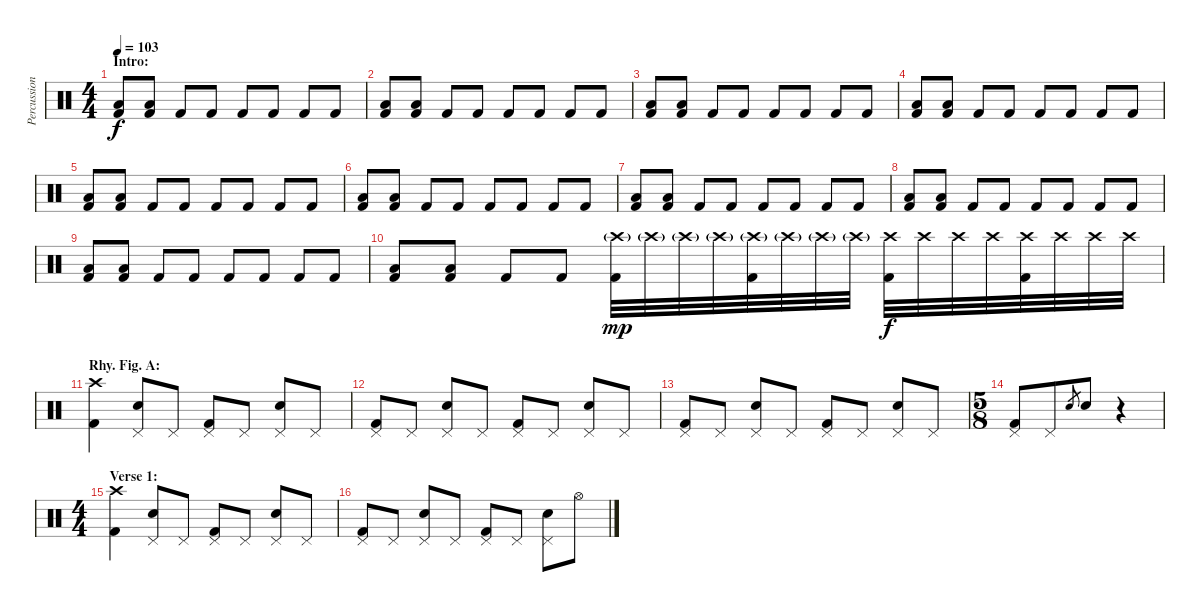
\track ("Percussion" "Percussion") {instrument percussion}
\staff {score}
\articulation defaults
\ts (4 4)
\section ("" "Intro:")
\tempo 103
\clef neutral
\ks c
("Low Tom (hit)" "Kick (hit) 2").8{dy f} ("Low Tom (hit)" "Kick (hit) 2").8 "Kick (hit) 2".8 "Kick (hit) 2".8 "Kick (hit) 2".8 "Kick (hit) 2".8 "Kick (hit) 2".8 "Kick (hit) 2".8 |
("Low Tom (hit)" "Kick (hit) 2").8 ("Low Tom (hit)" "Kick (hit) 2").8 "Kick (hit) 2".8 "Kick (hit) 2".8 "Kick (hit) 2".8 "Kick (hit) 2".8 "Kick (hit) 2".8 "Kick (hit) 2".8 |
("Low Tom (hit)" "Kick (hit) 2").8 ("Low Tom (hit)" "Kick (hit) 2").8 "Kick (hit) 2".8 "Kick (hit) 2".8 "Kick (hit) 2".8 "Kick (hit) 2".8 "Kick (hit) 2".8 "Kick (hit) 2".8 |
("Low Tom (hit)" "Kick (hit) 2").8 ("Low Tom (hit)" "Kick (hit) 2").8 "Kick (hit) 2".8 "Kick (hit) 2".8 "Kick (hit) 2".8 "Kick (hit) 2".8 "Kick (hit) 2".8 "Kick (hit) 2".8 |
("Low Tom (hit)" "Kick (hit) 2").8 ("Low Tom (hit)" "Kick (hit) 2").8 "Kick (hit) 2".8 "Kick (hit) 2".8 "Kick (hit) 2".8 "Kick (hit) 2".8 "Kick (hit) 2".8 "Kick (hit) 2".8 |
("Low Tom (hit)" "Kick (hit) 2").8 ("Low Tom (hit)" "Kick (hit) 2").8 "Kick (hit) 2".8 "Kick (hit) 2".8 "Kick (hit) 2".8 "Kick (hit) 2".8 "Kick (hit) 2".8 "Kick (hit) 2".8 |
("Low Tom (hit)" "Kick (hit) 2").8 ("Low Tom (hit)" "Kick (hit) 2").8 "Kick (hit) 2".8 "Kick (hit) 2".8 "Kick (hit) 2".8 "Kick (hit) 2".8 "Kick (hit) 2".8 "Kick (hit) 2".8 |
("Low Tom (hit)" "Kick (hit) 2").8 ("Low Tom (hit)" "Kick (hit) 2").8 "Kick (hit) 2".8 "Kick (hit) 2".8 "Kick (hit) 2".8 "Kick (hit) 2".8 "Kick (hit) 2".8 "Kick (hit) 2".8 |
("Low Tom (hit)" "Kick (hit) 2").8 ("Low Tom (hit)" "Kick (hit) 2").8 "Kick (hit) 2".8 "Kick (hit) 2".8 "Kick (hit) 2".8 "Kick (hit) 2".8 "Kick (hit) 2".8 "Kick (hit) 2".8 |
("Low Tom (hit)" "Kick (hit) 2").8 ("Low Tom (hit)" "Kick (hit) 2").8 "Kick (hit) 2".8 "Kick (hit) 2".8 ("Crash high (hit)"{g} "Kick (hit) 2").32{dy mp} "Crash high (hit)"{g}.32 "Crash high (hit)"{g}.32 "Crash high (hit)"{g}.32 ("Crash high (hit)"{g} "Kick (hit) 2").32 "Crash high (hit)"{g}.32 "Crash high (hit)"{g}.32 "Crash high (hit)"{g}.32 ("Crash high (hit)" "Kick (hit) 2").32{dy f} "Crash high (hit)".32 "Crash high (hit)".32 "Crash high (hit)".32 ("Crash high (hit)" "Kick (hit) 2").32 "Crash high (hit)".32 "Crash high (hit)".32 "Crash high (hit)".32 |
\section ("" "Rhy. Fig. A:")
("Crash high (hit)" "Kick (hit) 2").4 ("Pedal Hi-Hat (hit)" "Snare (hit) 2").8 "Pedal Hi-Hat (hit)".8 ("Pedal Hi-Hat (hit)" "Kick (hit) 2").8 "Pedal Hi-Hat (hit)".8 ("Pedal Hi-Hat (hit)" "Snare (hit) 2").8 "Pedal Hi-Hat (hit)".8 |
("Pedal Hi-Hat (hit)" "Kick (hit) 2").8 "Pedal Hi-Hat (hit)".8 ("Pedal Hi-Hat (hit)" "Snare (hit) 2").8 "Pedal Hi-Hat (hit)".8 ("Pedal Hi-Hat (hit)" "Kick (hit) 2").8 "Pedal Hi-Hat (hit)".8 ("Pedal Hi-Hat (hit)" "Snare (hit) 2").8 "Pedal Hi-Hat (hit)".8 |
("Pedal Hi-Hat (hit)" "Kick (hit) 2").8 "Pedal Hi-Hat (hit)".8 ("Pedal Hi-Hat (hit)" "Snare (hit) 2").8 "Pedal Hi-Hat (hit)".8 ("Pedal Hi-Hat (hit)" "Kick (hit) 2").8 "Pedal Hi-Hat (hit)".8 ("Pedal Hi-Hat (hit)" "Snare (hit) 2").8 "Pedal Hi-Hat (hit)".8 |
\ts (5 8)
("Pedal Hi-Hat (hit)" "Kick (hit) 2").8 "Pedal Hi-Hat (hit)".8 "Snare (hit) 2".8{gr} "Snare (hit) 2".8 r.4 |
\ts (4 4)
\section ("" "Verse 1:")
("Crash high (hit)" "Kick (hit) 2").4 ("Pedal Hi-Hat (hit)" "Snare (hit) 2").8 "Pedal Hi-Hat (hit)".8 ("Pedal Hi-Hat (hit)" "Kick (hit) 2").8 "Pedal Hi-Hat (hit)".8 ("Pedal Hi-Hat (hit)" "Snare (hit) 2").8 "Pedal Hi-Hat (hit)".8 |
("Pedal Hi-Hat (hit)" "Kick (hit) 2").8 "Pedal Hi-Hat (hit)".8 ("Pedal Hi-Hat (hit)" "Snare (hit) 2").8 "Pedal Hi-Hat (hit)".8 ("Pedal Hi-Hat (hit)" "Kick (hit) 2").8 "Pedal Hi-Hat (hit)".8 ("Pedal Hi-Hat (hit)" "Snare (hit) 2").8 "Hi-Hat (open)".8
